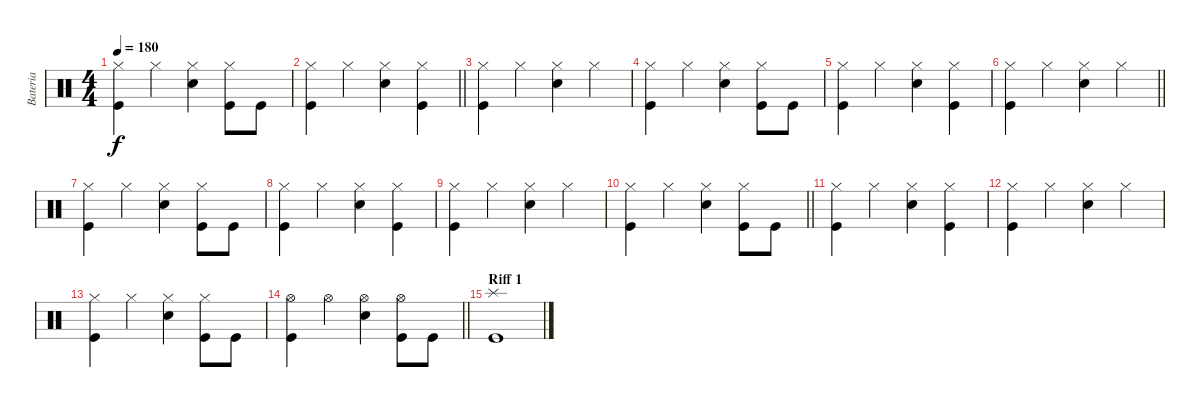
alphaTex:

\track ("Bateria" "Bateria") {instrument percussion}
\staff {score}
\articulation defaults
\ts (4 4)
\tempo 180
\clef neutral
\ks c
("Hi-Hat (closed)" "Kick (hit)").4{dy f} "Hi-Hat (closed)".4 ("Hi-Hat (closed)" "Snare (hit) 2").4 ("Hi-Hat (closed)" "Kick (hit)").8 "Kick (hit)".8 |
\barLineRight lightlight
("Hi-Hat (closed)" "Kick (hit)").4 "Hi-Hat (closed)".4 ("Hi-Hat (closed)" "Snare (hit) 2").4 ("Hi-Hat (closed)" "Kick (hit)").4 |
("Hi-Hat (closed)" "Kick (hit)").4 "Hi-Hat (closed)".4 ("Hi-Hat (closed)" "Snare (hit) 2").4 "Hi-Hat (closed)".4 |
("Hi-Hat (closed)" "Kick (hit)").4 "Hi-Hat (closed)".4 ("Hi-Hat (closed)" "Snare (hit) 2").4 ("Hi-Hat (closed)" "Kick (hit)").8 "Kick (hit)".8 |
("Hi-Hat (closed)" "Kick (hit)").4 "Hi-Hat (closed)".4 ("Hi-Hat (closed)" "Snare (hit) 2").4 ("Hi-Hat (closed)" "Kick (hit)").4 |
\barLineRight lightlight
("Hi-Hat (closed)" "Kick (hit)").4 "Hi-Hat (closed)".4 ("Hi-Hat (closed)" "Snare (hit) 2").4 "Hi-Hat (closed)".4 |
("Hi-Hat (closed)" "Kick (hit)").4 "Hi-Hat (closed)".4 ("Hi-Hat (closed)" "Snare (hit) 2").4 ("Hi-Hat (closed)" "Kick (hit)").8 "Kick (hit)".8 |
("Hi-Hat (closed)" "Kick (hit)").4 "Hi-Hat (closed)".4 ("Hi-Hat (closed)" "Snare (hit) 2").4 ("Hi-Hat (closed)" "Kick (hit)").4 |
("Hi-Hat (closed)" "Kick (hit)").4 "Hi-Hat (closed)".4 ("Hi-Hat (closed)" "Snare (hit) 2").4 "Hi-Hat (closed)".4 |
\barLineRight lightlight
("Hi-Hat (closed)" "Kick (hit)").4 "Hi-Hat (closed)".4 ("Hi-Hat (closed)" "Snare (hit) 2").4 ("Hi-Hat (closed)" "Kick (hit)").8 "Kick (hit)".8 |
("Hi-Hat (closed)" "Kick (hit)").4 "Hi-Hat (closed)".4 ("Hi-Hat (closed)" "Snare (hit) 2").4 ("Hi-Hat (closed)" "Kick (hit)").4 |
("Hi-Hat (closed)" "Kick (hit)").4 "Hi-Hat (closed)".4 ("Hi-Hat (closed)" "Snare (hit) 2").4 "Hi-Hat (closed)".4 |
("Hi-Hat (closed)" "Kick (hit)").4 "Hi-Hat (closed)".4 ("Hi-Hat (closed)" "Snare (hit) 2").4 ("Hi-Hat (closed)" "Kick (hit)").8 "Kick (hit)".8 |
\barLineRight lightlight
("Hi-Hat (open)" "Kick (hit)").4 "Hi-Hat (open)".4 ("Hi-Hat (open)" "Snare (hit) 2").4 ("Hi-Hat (open)" "Kick (hit)").8 "Kick (hit)".8 |
\section ("" "Riff 1")
("Splash (hit)" "Kick (hit)").1
